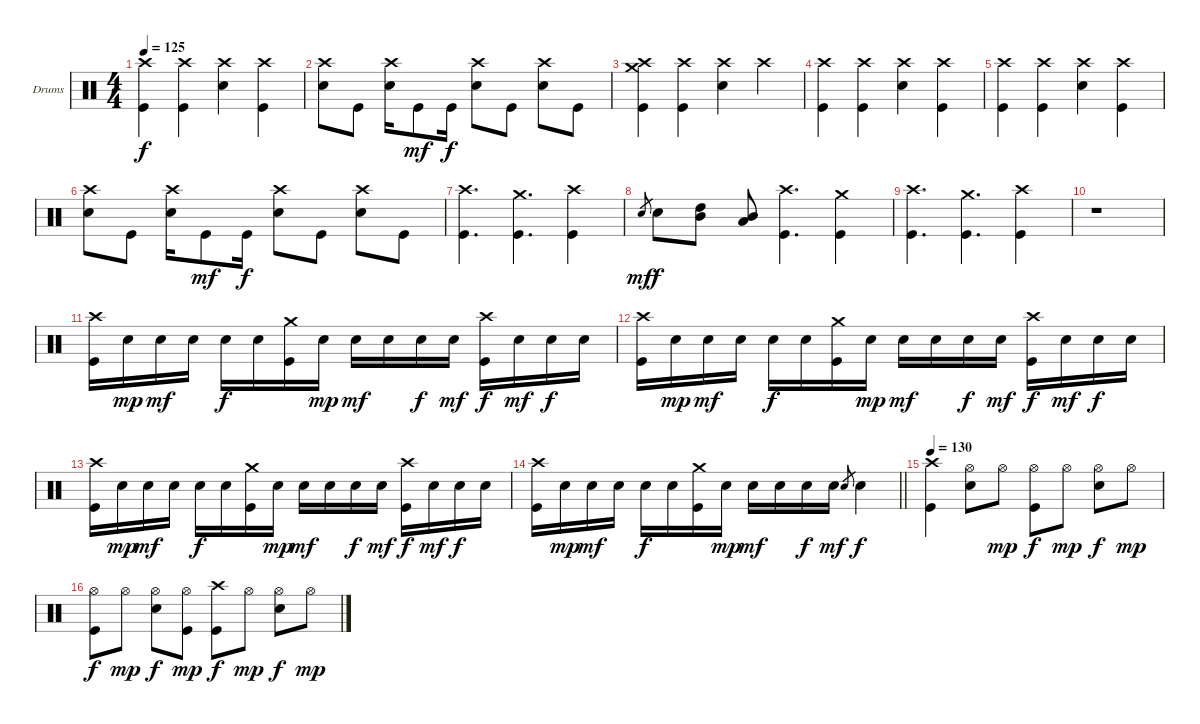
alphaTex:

\bracketExtendMode groupsimilarinstruments
\firstSystemTrackNameOrientation horizontal
\otherSystemsTrackNameOrientation horizontal
\track ("Drumkit" "Drums") {instrument percussion}
\staff {score}
\articulation defaults
\ts (4 4)
\tempo 125
\clef neutral
\ks c
("Crash high (hit)" "Kick (hit)").4{dy f} ("Crash high (hit)" "Kick (hit)").4 ("Crash high (hit)" "Snare (hit) 2").4 ("Crash high (hit)" "Kick (hit)").4 |
("Crash high (hit)" "Snare (hit) 2").8 "Kick (hit)".8 ("Crash high (hit)" "Snare (hit) 2").16 "Kick (hit)".8{dy mf} "Kick (hit)".16{dy f} ("Crash high (hit)" "Snare (hit) 2").8 "Kick (hit)".8 ("Crash high (hit)" "Snare (hit) 2").8 "Kick (hit)".8 |
("Crash high (hit)" "Crash medium (hit)" "Kick (hit)").4 ("Crash high (hit)" "Kick (hit)").4 ("Crash high (hit)" "Snare (hit) 2").4 "Crash high (hit)".4 |
("Crash high (hit)" "Kick (hit)").4 ("Crash high (hit)" "Kick (hit)").4 ("Crash high (hit)" "Snare (hit) 2").4 ("Crash high (hit)" "Kick (hit)").4 |
("Crash high (hit)" "Kick (hit)").4 ("Crash high (hit)" "Kick (hit)").4 ("Crash high (hit)" "Snare (hit) 2").4 ("Crash high (hit)" "Kick (hit)").4 |
("Crash high (hit)" "Snare (hit) 2").8 "Kick (hit)".8 ("Crash high (hit)" "Snare (hit) 2").16 "Kick (hit)".8{dy mf} "Kick (hit)".16{dy f} ("Crash high (hit)" "Snare (hit) 2").8 "Kick (hit)".8 ("Crash high (hit)" "Snare (hit) 2").8 "Kick (hit)".8 |
("Crash high (hit)" "Kick (hit)").4{d} ("Crash medium (hit)" "Kick (hit)").4{d} ("Crash high (hit)" "Kick (hit)").4 |
"Snare (hit) 2".8{gr dy mf} "Snare (hit) 2".8{dy f} ("High Tom (hit)" "Mid Tom (hit)").8 ("Mid Tom (hit)" "Low Tom (hit)").8 ("Crash high (hit)" "Kick (hit)").4{d} ("Crash medium (hit)" "Kick (hit)").4 |
("Crash high (hit)" "Kick (hit)").4{d} ("Crash medium (hit)" "Kick (hit)").4{d} ("Crash high (hit)" "Kick (hit)").4 |
r.1 |
("Crash high (hit)" "Kick (hit)").16 "Snare (hit) 2".16{dy mp} "Snare (hit) 2".16{dy mf} "Snare (hit) 2".16 "Snare (hit) 2".16{dy f} "Snare (hit) 2".16 ("Crash medium (hit)" "Kick (hit)").16 "Snare (hit) 2".16{dy mp} "Snare (hit) 2".16{dy mf} "Snare (hit) 2".16 "Snare (hit) 2".16{dy f} "Snare (hit) 2".16{dy mf} ("Crash high (hit)" "Kick (hit)").16{dy f} "Snare (hit) 2".16{dy mf} "Snare (hit) 2".16{dy f} "Snare (hit) 2".16 |
("Crash high (hit)" "Kick (hit)").16 "Snare (hit) 2".16{dy mp} "Snare (hit) 2".16{dy mf} "Snare (hit) 2".16 "Snare (hit) 2".16{dy f} "Snare (hit) 2".16 ("Crash medium (hit)" "Kick (hit)").16 "Snare (hit) 2".16{dy mp} "Snare (hit) 2".16{dy mf} "Snare (hit) 2".16 "Snare (hit) 2".16{dy f} "Snare (hit) 2".16{dy mf} ("Crash high (hit)" "Kick (hit)").16{dy f} "Snare (hit) 2".16{dy mf} "Snare (hit) 2".16{dy f} "Snare (hit) 2".16 |
("Crash high (hit)" "Kick (hit)").16 "Snare (hit) 2".16{dy mp} "Snare (hit) 2".16{dy mf} "Snare (hit) 2".16 "Snare (hit) 2".16{dy f} "Snare (hit) 2".16 ("Crash medium (hit)" "Kick (hit)").16 "Snare (hit) 2".16{dy mp} "Snare (hit) 2".16{dy mf} "Snare (hit) 2".16 "Snare (hit) 2".16{dy f} "Snare (hit) 2".16{dy mf} ("Crash high (hit)" "Kick (hit)").16{dy f} "Snare (hit) 2".16{dy mf} "Snare (hit) 2".16{dy f} "Snare (hit) 2".16 |
\barLineRight lightlight
("Crash high (hit)" "Kick (hit)").16 "Snare (hit) 2".16{dy mp} "Snare (hit) 2".16{dy mf} "Snare (hit) 2".16 "Snare (hit) 2".16{dy f} "Snare (hit) 2".16 ("Crash medium (hit)" "Kick (hit)").16 "Snare (hit) 2".16{dy mp} "Snare (hit) 2".16{dy mf} "Snare (hit) 2".16 "Snare (hit) 2".16{dy f} "Snare (hit) 2".16{dy mf} "Snare (hit) 2".8{gr} "Snare (hit) 2".4{dy f} |
\tempo 130
("Crash high (hit)" "Kick (hit)").4 ("Hi-Hat (open)" "Snare (hit) 2").8 "Hi-Hat (open)".8{dy mp} ("Hi-Hat (open)" "Kick (hit)").8{dy f} "Hi-Hat (open)".8{dy mp} ("Hi-Hat (open)" "Snare (hit) 2").8{dy f} "Hi-Hat (open)".8{dy mp} |
("Hi-Hat (open)" "Kick (hit)").8{dy f} "Hi-Hat (open)".8{dy mp} ("Hi-Hat (open)" "Snare (hit) 2").8{dy f} ("Hi-Hat (open)" "Kick (hit)").8{dy mp} ("Crash high (hit)" "Kick (hit)").8{dy f} "Hi-Hat (open)".8{dy mp} ("Hi-Hat (open)" "Snare (hit) 2").8{dy f} "Hi-Hat (open)".8{dy mp}
